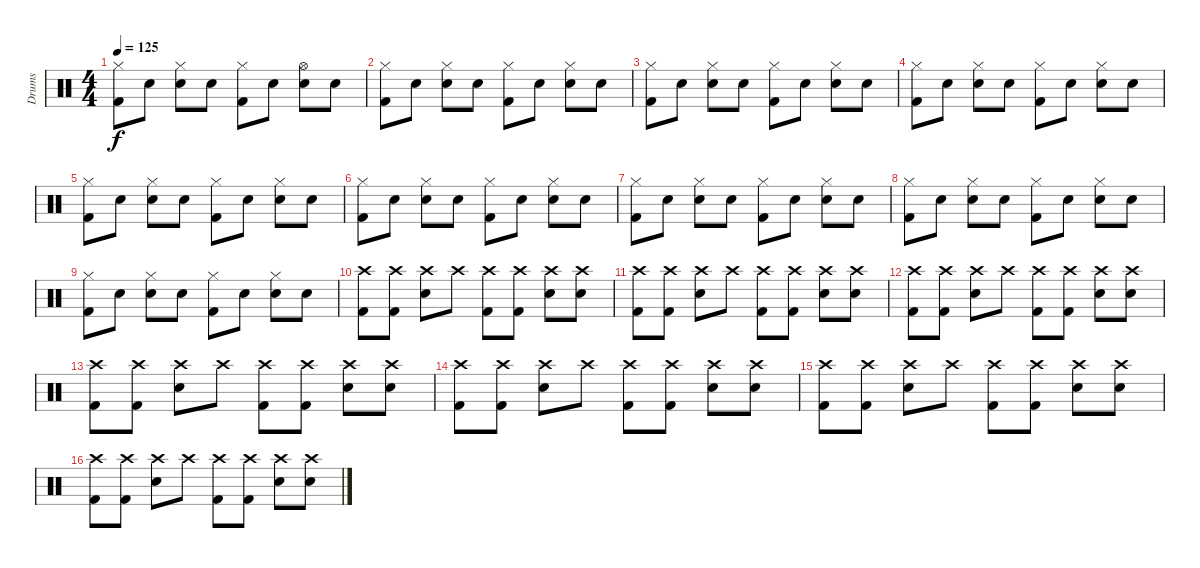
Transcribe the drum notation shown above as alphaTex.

\track ("Drums" "Drums") {instrument percussion}
\staff {score}
\articulation defaults
\ts (4 4)
\tempo 125
\clef neutral
\ks c
("Kick (hit) 2" "Hi-Hat (closed)").8{dy f} "Snare (hit)".8 ("Snare (hit) 2" "Hi-Hat (closed)").8 "Snare (hit)".8 ("Kick (hit) 2" "Hi-Hat (closed)").8 "Snare (hit)".8 ("Snare (hit) 2" "Hi-Hat (open)").8 "Snare (hit)".8 |
("Kick (hit) 2" "Hi-Hat (closed)").8 "Snare (hit)".8 ("Snare (hit) 2" "Hi-Hat (closed)").8 "Snare (hit)".8 ("Kick (hit) 2" "Hi-Hat (closed)").8 "Snare (hit)".8 ("Snare (hit) 2" "Hi-Hat (closed)").8 "Snare (hit)".8 |
("Kick (hit) 2" "Hi-Hat (closed)").8 "Snare (hit)".8 ("Snare (hit) 2" "Hi-Hat (closed)").8 "Snare (hit)".8 ("Kick (hit) 2" "Hi-Hat (closed)").8 "Snare (hit)".8 ("Snare (hit) 2" "Hi-Hat (closed)").8 "Snare (hit)".8 |
("Kick (hit) 2" "Hi-Hat (closed)").8 "Snare (hit)".8 ("Snare (hit) 2" "Hi-Hat (closed)").8 "Snare (hit)".8 ("Kick (hit) 2" "Hi-Hat (closed)").8 "Snare (hit)".8 ("Snare (hit) 2" "Hi-Hat (closed)").8 "Snare (hit)".8 |
("Kick (hit) 2" "Hi-Hat (closed)").8 "Snare (hit)".8 ("Snare (hit) 2" "Hi-Hat (closed)").8 "Snare (hit)".8 ("Kick (hit) 2" "Hi-Hat (closed)").8 "Snare (hit)".8 ("Snare (hit) 2" "Hi-Hat (closed)").8 "Snare (hit)".8 |
("Kick (hit) 2" "Hi-Hat (closed)").8 "Snare (hit)".8 ("Snare (hit) 2" "Hi-Hat (closed)").8 "Snare (hit)".8 ("Kick (hit) 2" "Hi-Hat (closed)").8 "Snare (hit)".8 ("Snare (hit) 2" "Hi-Hat (closed)").8 "Snare (hit)".8 |
("Kick (hit) 2" "Hi-Hat (closed)").8 "Snare (hit)".8 ("Snare (hit) 2" "Hi-Hat (closed)").8 "Snare (hit)".8 ("Kick (hit) 2" "Hi-Hat (closed)").8 "Snare (hit)".8 ("Snare (hit) 2" "Hi-Hat (closed)").8 "Snare (hit)".8 |
("Kick (hit) 2" "Hi-Hat (closed)").8 "Snare (hit)".8 ("Snare (hit) 2" "Hi-Hat (closed)").8 "Snare (hit)".8 ("Kick (hit) 2" "Hi-Hat (closed)").8 "Snare (hit)".8 ("Snare (hit) 2" "Hi-Hat (closed)").8 "Snare (hit)".8 |
("Kick (hit) 2" "Hi-Hat (closed)").8 "Snare (hit)".8 ("Snare (hit) 2" "Hi-Hat (closed)").8 "Snare (hit)".8 ("Kick (hit) 2" "Hi-Hat (closed)").8 "Snare (hit)".8 ("Snare (hit) 2" "Hi-Hat (closed)").8 "Snare (hit)".8 |
("Kick (hit) 2" "Crash high (hit)").8 ("Kick (hit) 2" "Crash high (hit)").8 ("Snare (hit) 2" "Crash high (hit)").8 "Crash high (hit)".8 ("Kick (hit) 2" "Crash high (hit)").8 ("Kick (hit) 2" "Crash high (hit)").8 ("Snare (hit) 2" "Crash high (hit)").8 ("Snare (hit)" "Crash high (hit)").8 |
("Kick (hit) 2" "Crash high (hit)").8 ("Kick (hit) 2" "Crash high (hit)").8 ("Snare (hit) 2" "Crash high (hit)").8 "Crash high (hit)".8 ("Kick (hit) 2" "Crash high (hit)").8 ("Kick (hit) 2" "Crash high (hit)").8 ("Snare (hit) 2" "Crash high (hit)").8 ("Snare (hit)" "Crash high (hit)").8 |
("Kick (hit) 2" "Crash high (hit)").8 ("Kick (hit) 2" "Crash high (hit)").8 ("Snare (hit) 2" "Crash high (hit)").8 "Crash high (hit)".8 ("Kick (hit) 2" "Crash high (hit)").8 ("Kick (hit) 2" "Crash high (hit)").8 ("Snare (hit) 2" "Crash high (hit)").8 ("Snare (hit)" "Crash high (hit)").8 |
("Kick (hit) 2" "Crash high (hit)").8 ("Kick (hit) 2" "Crash high (hit)").8 ("Snare (hit) 2" "Crash high (hit)").8 "Crash high (hit)".8 ("Kick (hit) 2" "Crash high (hit)").8 ("Kick (hit) 2" "Crash high (hit)").8 ("Snare (hit) 2" "Crash high (hit)").8 ("Snare (hit)" "Crash high (hit)").8 |
("Kick (hit) 2" "Crash high (hit)").8 ("Kick (hit) 2" "Crash high (hit)").8 ("Snare (hit) 2" "Crash high (hit)").8 "Crash high (hit)".8 ("Kick (hit) 2" "Crash high (hit)").8 ("Kick (hit) 2" "Crash high (hit)").8 ("Snare (hit) 2" "Crash high (hit)").8 ("Snare (hit)" "Crash high (hit)").8 |
("Kick (hit) 2" "Crash high (hit)").8 ("Kick (hit) 2" "Crash high (hit)").8 ("Snare (hit) 2" "Crash high (hit)").8 "Crash high (hit)".8 ("Kick (hit) 2" "Crash high (hit)").8 ("Kick (hit) 2" "Crash high (hit)").8 ("Snare (hit) 2" "Crash high (hit)").8 ("Snare (hit)" "Crash high (hit)").8 |
("Kick (hit) 2" "Crash high (hit)").8 ("Kick (hit) 2" "Crash high (hit)").8 ("Snare (hit) 2" "Crash high (hit)").8 "Crash high (hit)".8 ("Kick (hit) 2" "Crash high (hit)").8 ("Kick (hit) 2" "Crash high (hit)").8 ("Snare (hit) 2" "Crash high (hit)").8 ("Snare (hit)" "Crash high (hit)").8
